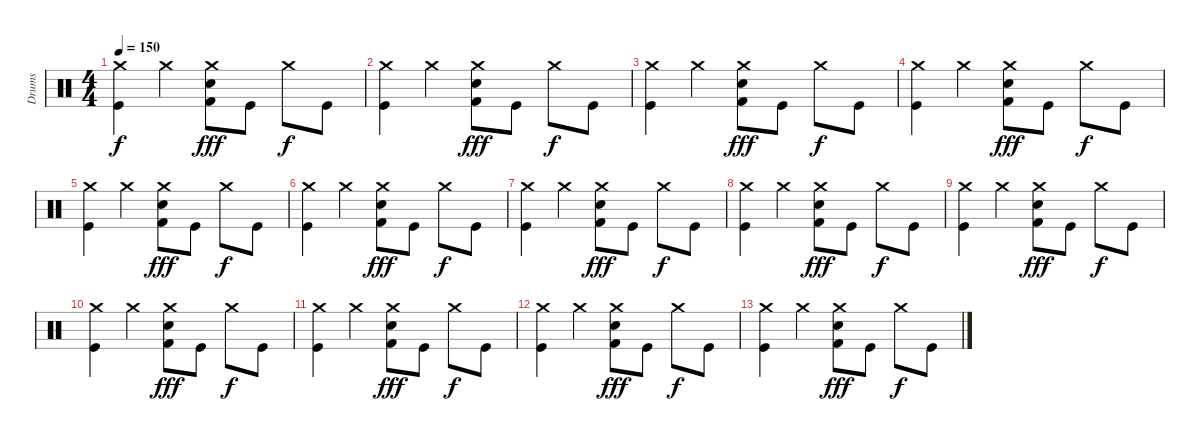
\track ("Drums" "Drums") {instrument percussion}
\staff {score}
\articulation defaults
\ts (4 4)
\tempo 150
\clef neutral
\ks c
("Crash medium (hit)" "Kick (hit)").4{dy f} "Crash medium (hit)".4 ("Crash medium (hit)" "Electric Snare (hit)" "Kick (hit) 2").8{dy fff} "Kick (hit)".8 "Crash medium (hit)".8{dy f} "Kick (hit)".8 |
("Crash medium (hit)" "Kick (hit)").4 "Crash medium (hit)".4 ("Crash medium (hit)" "Electric Snare (hit)" "Kick (hit) 2").8{dy fff} "Kick (hit)".8 "Crash medium (hit)".8{dy f} "Kick (hit)".8 |
("Crash medium (hit)" "Kick (hit)").4 "Crash medium (hit)".4 ("Crash medium (hit)" "Electric Snare (hit)" "Kick (hit) 2").8{dy fff} "Kick (hit)".8 "Crash medium (hit)".8{dy f} "Kick (hit)".8 |
("Crash medium (hit)" "Kick (hit)").4 "Crash medium (hit)".4 ("Crash medium (hit)" "Electric Snare (hit)" "Kick (hit) 2").8{dy fff} "Kick (hit)".8 "Crash medium (hit)".8{dy f} "Kick (hit)".8 |
("Crash medium (hit)" "Kick (hit)").4 "Crash medium (hit)".4 ("Crash medium (hit)" "Electric Snare (hit)" "Kick (hit) 2").8{dy fff} "Kick (hit)".8 "Crash medium (hit)".8{dy f} "Kick (hit)".8 |
("Crash medium (hit)" "Kick (hit)").4 "Crash medium (hit)".4 ("Crash medium (hit)" "Electric Snare (hit)" "Kick (hit) 2").8{dy fff} "Kick (hit)".8 "Crash medium (hit)".8{dy f} "Kick (hit)".8 |
("Crash medium (hit)" "Kick (hit)").4 "Crash medium (hit)".4 ("Crash medium (hit)" "Electric Snare (hit)" "Kick (hit) 2").8{dy fff} "Kick (hit)".8 "Crash medium (hit)".8{dy f} "Kick (hit)".8 |
("Crash medium (hit)" "Kick (hit)").4 "Crash medium (hit)".4 ("Crash medium (hit)" "Electric Snare (hit)" "Kick (hit) 2").8{dy fff} "Kick (hit)".8 "Crash medium (hit)".8{dy f} "Kick (hit)".8 |
("Crash medium (hit)" "Kick (hit)").4 "Crash medium (hit)".4 ("Crash medium (hit)" "Electric Snare (hit)" "Kick (hit) 2").8{dy fff} "Kick (hit)".8 "Crash medium (hit)".8{dy f} "Kick (hit)".8 |
("Crash medium (hit)" "Kick (hit)").4 "Crash medium (hit)".4 ("Crash medium (hit)" "Electric Snare (hit)" "Kick (hit) 2").8{dy fff} "Kick (hit)".8 "Crash medium (hit)".8{dy f} "Kick (hit)".8 |
("Crash medium (hit)" "Kick (hit)").4 "Crash medium (hit)".4 ("Crash medium (hit)" "Electric Snare (hit)" "Kick (hit) 2").8{dy fff} "Kick (hit)".8 "Crash medium (hit)".8{dy f} "Kick (hit)".8 |
("Crash medium (hit)" "Kick (hit)").4 "Crash medium (hit)".4 ("Crash medium (hit)" "Electric Snare (hit)" "Kick (hit) 2").8{dy fff} "Kick (hit)".8 "Crash medium (hit)".8{dy f} "Kick (hit)".8 |
("Crash medium (hit)" "Kick (hit)").4 "Crash medium (hit)".4 ("Crash medium (hit)" "Electric Snare (hit)" "Kick (hit) 2").8{dy fff} "Kick (hit)".8 "Crash medium (hit)".8{dy f} "Kick (hit)".8
